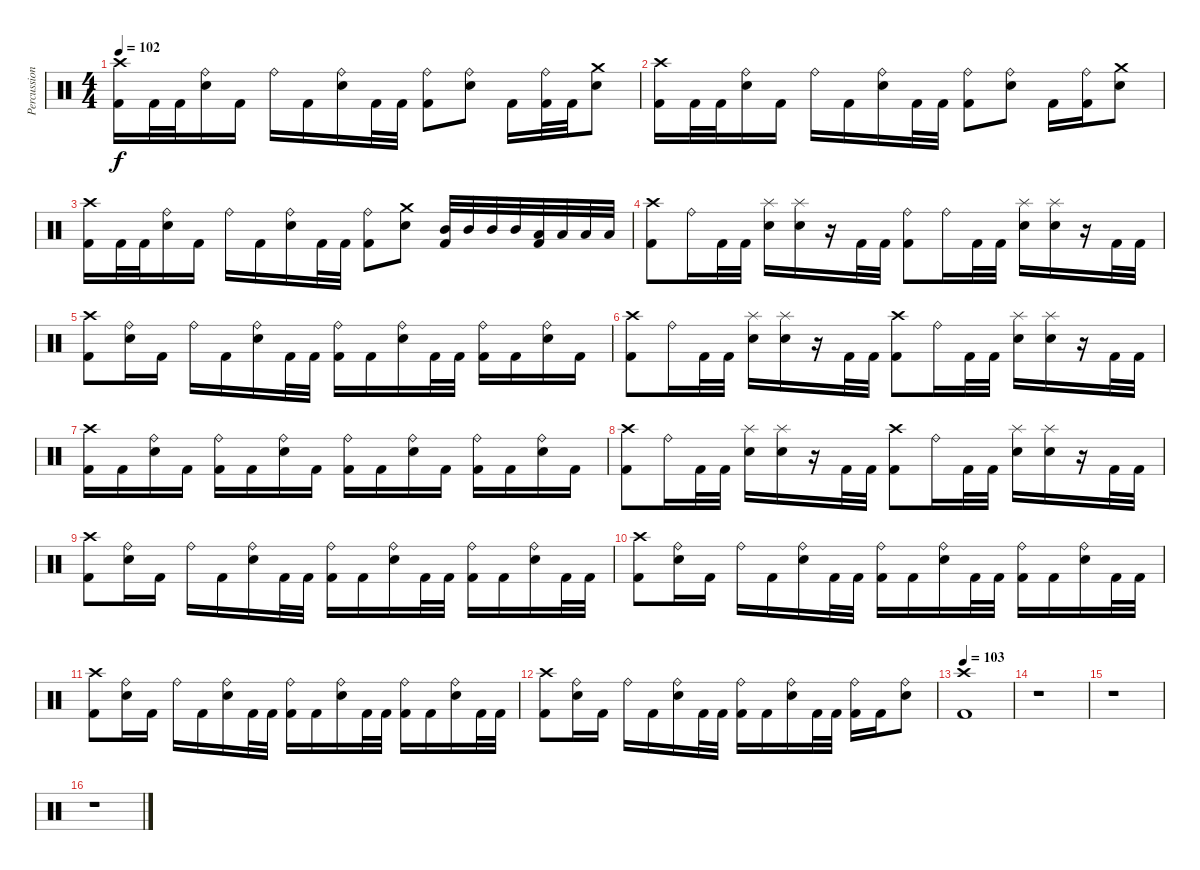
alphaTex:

\track ("Percussion" "Percussion") {solo instrument percussion}
\staff {score}
\articulation defaults
\ts (4 4)
\tempo 102
\clef neutral
\ks c
("Crash high (hit)" "Kick (hit) 2").16{dy f} "Kick (hit) 2".32 "Kick (hit) 2".32 ("Ride (bell)" "Snare (hit) 2").16 "Kick (hit) 2".16 "Ride (bell)".16 "Kick (hit) 2".16 ("Ride (bell)" "Snare (hit) 2").16 "Kick (hit) 2".32 "Kick (hit) 2".32 ("Ride (bell)" "Kick (hit) 2").8 ("Ride (bell)" "Snare (hit) 2").8 "Kick (hit) 2".16 ("Ride (bell)" "Kick (hit) 2").32 "Kick (hit) 2".32 ("Crash medium (hit)" "Snare (hit) 2").8 |
("Crash high (hit)" "Kick (hit) 2").16 "Kick (hit) 2".32 "Kick (hit) 2".32 ("Ride (bell)" "Snare (hit) 2").16 "Kick (hit) 2".16 "Ride (bell)".16 "Kick (hit) 2".16 ("Ride (bell)" "Snare (hit) 2").16 "Kick (hit) 2".32 "Kick (hit) 2".32 ("Ride (bell)" "Kick (hit) 2").8 ("Ride (bell)" "Snare (hit) 2").8 "Kick (hit) 2".16 ("Ride (bell)" "Kick (hit) 2").16 ("Crash medium (hit)" "Snare (hit) 2").8 |
("Crash high (hit)" "Kick (hit) 2").16 "Kick (hit) 2".32 "Kick (hit) 2".32 ("Ride (bell)" "Snare (hit) 2").16 "Kick (hit) 2".16 "Ride (bell)".16 "Kick (hit) 2".16 ("Ride (bell)" "Snare (hit) 2").16 "Kick (hit) 2".32 "Kick (hit) 2".32 ("Ride (bell)" "Kick (hit) 2").8 ("Crash medium (hit)" "Snare (hit) 2").8 ("Mid Tom (hit)" "Kick (hit) 2").32 "Mid Tom (hit)".32 "Mid Tom (hit)".32 "Mid Tom (hit)".32 ("Low Tom (hit)" "Kick (hit) 2").32 "Low Tom (hit)".32 "Low Tom (hit)".32 "Low Tom (hit)".32 |
("Crash high (hit)" "Kick (hit) 2").8 "Ride (bell)".16 "Kick (hit) 2".32 "Kick (hit) 2".32 ("Splash (hit)" "Snare (hit) 2").16 ("Splash (hit)" "Snare (hit) 2").16 r.16 "Kick (hit) 2".32 "Kick (hit) 2".32 ("Ride (bell)" "Kick (hit) 2").8 "Ride (bell)".16 "Kick (hit) 2".32 "Kick (hit) 2".32 ("Splash (hit)" "Snare (hit) 2").16 ("Splash (hit)" "Snare (hit) 2").16 r.16 "Kick (hit) 2".32 "Kick (hit) 2".32 |
("Crash high (hit)" "Kick (hit) 2").8 ("Ride (bell)" "Snare (hit) 2").16 "Kick (hit) 2".16 "Ride (bell)".16 "Kick (hit) 2".16 ("Ride (bell)" "Snare (hit) 2").16 "Kick (hit) 2".32 "Kick (hit) 2".32 ("Ride (bell)" "Kick (hit) 2").16 "Kick (hit) 2".16 ("Ride (bell)" "Snare (hit) 2").16 "Kick (hit) 2".32 "Kick (hit) 2".32 ("Ride (bell)" "Kick (hit) 2").16 "Kick (hit) 2".16 ("Ride (bell)" "Snare (hit) 2").16 "Kick (hit) 2".16 |
("Crash high (hit)" "Kick (hit) 2").8 "Ride (bell)".16 "Kick (hit) 2".32 "Kick (hit) 2".32 ("Splash (hit)" "Snare (hit) 2").16 ("Splash (hit)" "Snare (hit) 2").16 r.16 "Kick (hit) 2".32 "Kick (hit) 2".32 ("Crash high (hit)" "Kick (hit) 2").8 "Ride (bell)".16 "Kick (hit) 2".32 "Kick (hit) 2".32 ("Splash (hit)" "Snare (hit) 2").16 ("Splash (hit)" "Snare (hit) 2").16 r.16 "Kick (hit) 2".32 "Kick (hit) 2".32 |
("Crash high (hit)" "Kick (hit) 2").16 "Kick (hit) 2".16 ("Ride (bell)" "Snare (hit) 2").16 "Kick (hit) 2".16 ("Ride (bell)" "Kick (hit) 2").16 "Kick (hit) 2".16 ("Ride (bell)" "Snare (hit) 2").16 "Kick (hit) 2".16 ("Ride (bell)" "Kick (hit) 2").16 "Kick (hit) 2".16 ("Ride (bell)" "Snare (hit) 2").16 "Kick (hit) 2".16 ("Ride (bell)" "Kick (hit) 2").16 "Kick (hit) 2".16 ("Ride (bell)" "Snare (hit) 2").16 "Kick (hit) 2".16 |
("Crash high (hit)" "Kick (hit) 2").8 "Ride (bell)".16 "Kick (hit) 2".32 "Kick (hit) 2".32 ("Splash (hit)" "Snare (hit) 2").16 ("Splash (hit)" "Snare (hit) 2").16 r.16 "Kick (hit) 2".32 "Kick (hit) 2".32 ("Crash high (hit)" "Kick (hit) 2").8 "Ride (bell)".16 "Kick (hit) 2".32 "Kick (hit) 2".32 ("Splash (hit)" "Snare (hit) 2").16 ("Splash (hit)" "Snare (hit) 2").16 r.16 "Kick (hit) 2".32 "Kick (hit) 2".32 |
("Crash high (hit)" "Kick (hit) 2").8 ("Ride (bell)" "Snare (hit) 2").16 "Kick (hit) 2".16 "Ride (bell)".16 "Kick (hit) 2".16 ("Ride (bell)" "Snare (hit) 2").16 "Kick (hit) 2".32 "Kick (hit) 2".32 ("Ride (bell)" "Kick (hit) 2").16 "Kick (hit) 2".16 ("Ride (bell)" "Snare (hit) 2").16 "Kick (hit) 2".32 "Kick (hit) 2".32 ("Ride (bell)" "Kick (hit) 2").16 "Kick (hit) 2".16 ("Ride (bell)" "Snare (hit) 2").16 "Kick (hit) 2".32 "Kick (hit) 2".32 |
("Crash high (hit)" "Kick (hit) 2").8 ("Ride (bell)" "Snare (hit) 2").16 "Kick (hit) 2".16 "Ride (bell)".16 "Kick (hit) 2".16 ("Ride (bell)" "Snare (hit) 2").16 "Kick (hit) 2".32 "Kick (hit) 2".32 ("Ride (bell)" "Kick (hit) 2").16 "Kick (hit) 2".16 ("Ride (bell)" "Snare (hit) 2").16 "Kick (hit) 2".32 "Kick (hit) 2".32 ("Ride (bell)" "Kick (hit) 2").16 "Kick (hit) 2".16 ("Ride (bell)" "Snare (hit) 2").16 "Kick (hit) 2".32 "Kick (hit) 2".32 |
("Crash high (hit)" "Kick (hit) 2").8 ("Ride (bell)" "Snare (hit) 2").16 "Kick (hit) 2".16 "Ride (bell)".16 "Kick (hit) 2".16 ("Ride (bell)" "Snare (hit) 2").16 "Kick (hit) 2".32 "Kick (hit) 2".32 ("Ride (bell)" "Kick (hit) 2").16 "Kick (hit) 2".16 ("Ride (bell)" "Snare (hit) 2").16 "Kick (hit) 2".32 "Kick (hit) 2".32 ("Ride (bell)" "Kick (hit) 2").16 "Kick (hit) 2".16 ("Ride (bell)" "Snare (hit) 2").16 "Kick (hit) 2".32 "Kick (hit) 2".32 |
("Crash high (hit)" "Kick (hit) 2").8 ("Ride (bell)" "Snare (hit) 2").16 "Kick (hit) 2".16 "Ride (bell)".16 "Kick (hit) 2".16 ("Ride (bell)" "Snare (hit) 2").16 "Kick (hit) 2".32 "Kick (hit) 2".32 ("Ride (bell)" "Kick (hit) 2").16 "Kick (hit) 2".16 ("Ride (bell)" "Snare (hit) 2").16 "Kick (hit) 2".32 "Kick (hit) 2".32 ("Ride (bell)" "Kick (hit) 2").16 "Kick (hit) 2".16 ("Ride (bell)" "Snare (hit) 2").8 |
\tempo 103
("Crash high (hit)" "Kick (hit) 2").1 |
r.1 |
r.1 |
r.1
